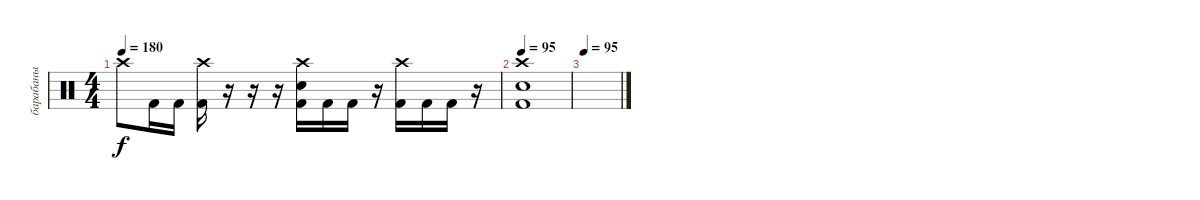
\track ("барабаны" "барабаны") {instrument percussion}
\staff {score}
\articulation defaults
\ts (4 4)
\tempo 180
\clef neutral
\ks c "Crash high (hit)".8{dy f} "Kick (hit) 2".16 "Kick (hit) 2".16
("Crash high (hit)" "Kick (hit) 2").16 r.16 r.16 r.16 ("Crash high (hit)" "Snare (hit) 2" "Kick (hit) 2").16 "Kick (hit) 2".16 "Kick (hit) 2".16 r.16 ("Crash high (hit)" "Kick (hit) 2").16 "Kick (hit) 2".16 "Kick (hit) 2".16 r.16 |
\tempo 95
("Crash high (hit)" "Snare (hit) 2" "Kick (hit) 2").1 |
\tempo 95
